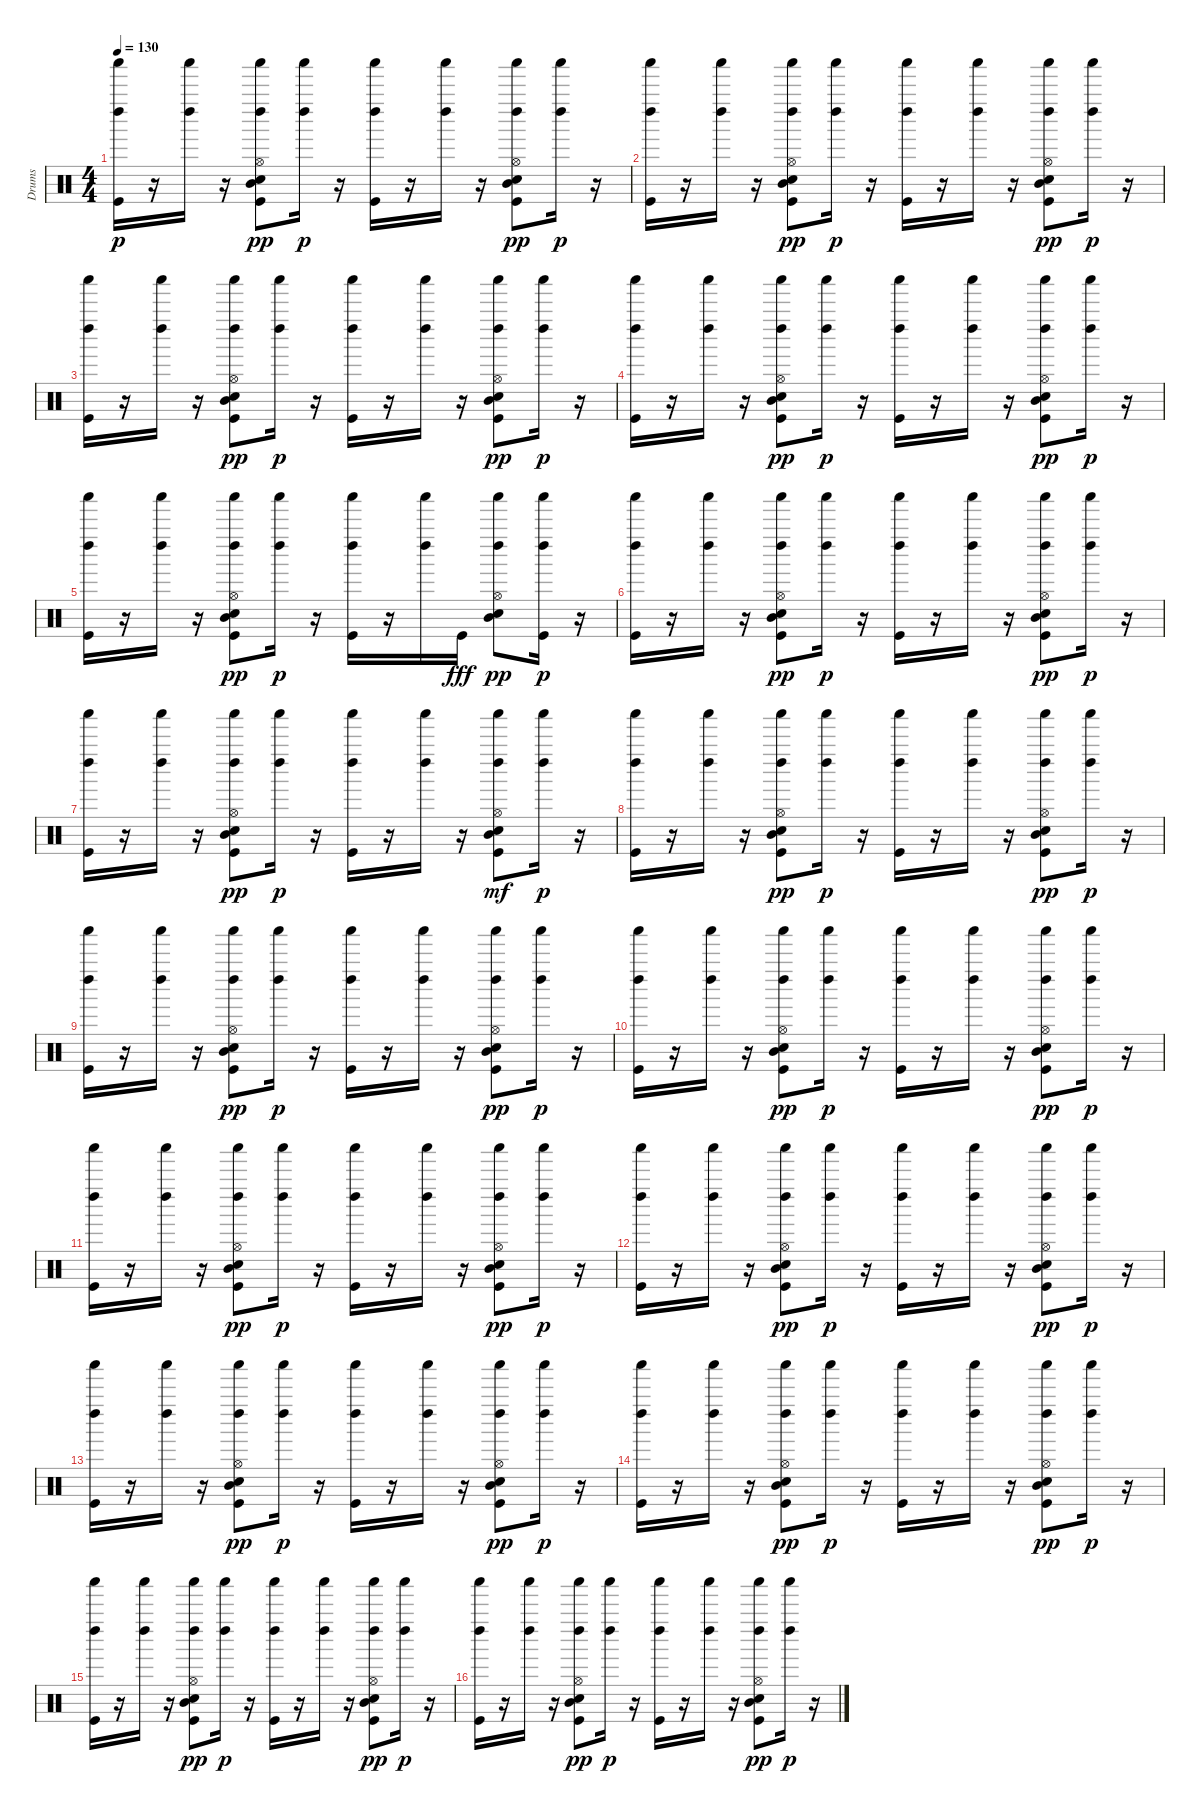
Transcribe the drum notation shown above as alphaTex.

\track ("Drums" "Drums") {instrument percussion}
\staff {score}
\articulation defaults
\ts (4 4)
\tempo 130
\clef neutral
\ks c
("Kick (hit)" "Shaker (hit)" "Left Maraca (hit)").16{dy p} r.16 ("Shaker (hit)" "Left Maraca (hit)").16 r.16 ("Snare (hit) 2" "Kick (hit)" "Shaker (hit)" "Left Maraca (hit)" "Mid Tom (hit)" "Hi-Hat (open)").8{dy pp} ("Shaker (hit)" "Left Maraca (hit)").16{dy p} r.16 ("Kick (hit)" "Shaker (hit)" "Left Maraca (hit)").16 r.16 ("Shaker (hit)" "Left Maraca (hit)").16 r.16 ("Snare (hit) 2" "Kick (hit)" "Shaker (hit)" "Left Maraca (hit)" "Mid Tom (hit)" "Hi-Hat (open)").8{dy pp} ("Shaker (hit)" "Left Maraca (hit)").16{dy p} r.16 |
("Kick (hit)" "Shaker (hit)" "Left Maraca (hit)").16 r.16 ("Shaker (hit)" "Left Maraca (hit)").16 r.16 ("Snare (hit) 2" "Kick (hit)" "Shaker (hit)" "Left Maraca (hit)" "Mid Tom (hit)" "Hi-Hat (open)").8{dy pp} ("Shaker (hit)" "Left Maraca (hit)").16{dy p} r.16 ("Kick (hit)" "Shaker (hit)" "Left Maraca (hit)").16 r.16 ("Shaker (hit)" "Left Maraca (hit)").16 r.16 ("Snare (hit) 2" "Kick (hit)" "Shaker (hit)" "Left Maraca (hit)" "Mid Tom (hit)" "Hi-Hat (open)").8{dy pp} ("Shaker (hit)" "Left Maraca (hit)").16{dy p} r.16 |
("Kick (hit)" "Shaker (hit)" "Left Maraca (hit)").16 r.16 ("Shaker (hit)" "Left Maraca (hit)").16 r.16 ("Snare (hit) 2" "Kick (hit)" "Shaker (hit)" "Left Maraca (hit)" "Mid Tom (hit)" "Hi-Hat (open)").8{dy pp} ("Shaker (hit)" "Left Maraca (hit)").16{dy p} r.16 ("Kick (hit)" "Shaker (hit)" "Left Maraca (hit)").16 r.16 ("Shaker (hit)" "Left Maraca (hit)").16 r.16 ("Snare (hit) 2" "Kick (hit)" "Shaker (hit)" "Left Maraca (hit)" "Mid Tom (hit)" "Hi-Hat (open)").8{dy pp} ("Shaker (hit)" "Left Maraca (hit)").16{dy p} r.16 |
("Kick (hit)" "Shaker (hit)" "Left Maraca (hit)").16 r.16 ("Shaker (hit)" "Left Maraca (hit)").16 r.16 ("Snare (hit) 2" "Kick (hit)" "Shaker (hit)" "Left Maraca (hit)" "Mid Tom (hit)" "Hi-Hat (open)").8{dy pp} ("Shaker (hit)" "Left Maraca (hit)").16{dy p} r.16 ("Kick (hit)" "Shaker (hit)" "Left Maraca (hit)").16 r.16 ("Shaker (hit)" "Left Maraca (hit)").16 r.16 ("Snare (hit) 2" "Kick (hit)" "Shaker (hit)" "Left Maraca (hit)" "Mid Tom (hit)" "Hi-Hat (open)").8{dy pp} ("Shaker (hit)" "Left Maraca (hit)").16{dy p} r.16 |
("Kick (hit)" "Shaker (hit)" "Left Maraca (hit)").16 r.16 ("Shaker (hit)" "Left Maraca (hit)").16 r.16 ("Snare (hit) 2" "Kick (hit)" "Shaker (hit)" "Left Maraca (hit)" "Mid Tom (hit)" "Hi-Hat (open)").8{dy pp} ("Shaker (hit)" "Left Maraca (hit)").16{dy p} r.16 ("Kick (hit)" "Shaker (hit)" "Left Maraca (hit)").16 r.16 ("Shaker (hit)" "Left Maraca (hit)").16 "Kick (hit)".16{dy fff} ("Snare (hit) 2" "Shaker (hit)" "Left Maraca (hit)" "Mid Tom (hit)" "Hi-Hat (open)").8{dy pp} ("Kick (hit)" "Shaker (hit)" "Left Maraca (hit)").16{dy p} r.16 |
("Kick (hit)" "Shaker (hit)" "Left Maraca (hit)").16 r.16 ("Shaker (hit)" "Left Maraca (hit)").16 r.16 ("Snare (hit) 2" "Kick (hit)" "Shaker (hit)" "Left Maraca (hit)" "Mid Tom (hit)" "Hi-Hat (open)").8{dy pp} ("Shaker (hit)" "Left Maraca (hit)").16{dy p} r.16 ("Kick (hit)" "Shaker (hit)" "Left Maraca (hit)").16 r.16 ("Shaker (hit)" "Left Maraca (hit)").16 r.16 ("Snare (hit) 2" "Kick (hit)" "Shaker (hit)" "Left Maraca (hit)" "Mid Tom (hit)" "Hi-Hat (open)").8{dy pp} ("Shaker (hit)" "Left Maraca (hit)").16{dy p} r.16 |
("Kick (hit)" "Shaker (hit)" "Left Maraca (hit)").16 r.16 ("Shaker (hit)" "Left Maraca (hit)").16 r.16 ("Snare (hit) 2" "Kick (hit)" "Shaker (hit)" "Left Maraca (hit)" "Mid Tom (hit)" "Hi-Hat (open)").8{dy pp} ("Shaker (hit)" "Left Maraca (hit)").16{dy p} r.16 ("Kick (hit)" "Shaker (hit)" "Left Maraca (hit)").16 r.16 ("Shaker (hit)" "Left Maraca (hit)").16 r.16 ("Snare (hit) 2" "Kick (hit)" "Shaker (hit)" "Left Maraca (hit)" "Mid Tom (hit)" "Hi-Hat (open)").8{dy mf} ("Shaker (hit)" "Left Maraca (hit)").16{dy p} r.16 |
("Kick (hit)" "Shaker (hit)" "Left Maraca (hit)").16 r.16 ("Shaker (hit)" "Left Maraca (hit)").16 r.16 ("Snare (hit) 2" "Kick (hit)" "Shaker (hit)" "Left Maraca (hit)" "Mid Tom (hit)" "Hi-Hat (open)").8{dy pp} ("Shaker (hit)" "Left Maraca (hit)").16{dy p} r.16 ("Kick (hit)" "Shaker (hit)" "Left Maraca (hit)").16 r.16 ("Shaker (hit)" "Left Maraca (hit)").16 r.16 ("Snare (hit) 2" "Kick (hit)" "Shaker (hit)" "Left Maraca (hit)" "Mid Tom (hit)" "Hi-Hat (open)").8{dy pp} ("Shaker (hit)" "Left Maraca (hit)").16{dy p} r.16 |
("Kick (hit)" "Shaker (hit)" "Left Maraca (hit)").16 r.16 ("Shaker (hit)" "Left Maraca (hit)").16 r.16 ("Snare (hit) 2" "Kick (hit)" "Shaker (hit)" "Left Maraca (hit)" "Mid Tom (hit)" "Hi-Hat (open)").8{dy pp} ("Shaker (hit)" "Left Maraca (hit)").16{dy p} r.16 ("Kick (hit)" "Shaker (hit)" "Left Maraca (hit)").16 r.16 ("Shaker (hit)" "Left Maraca (hit)").16 r.16 ("Snare (hit) 2" "Kick (hit)" "Shaker (hit)" "Left Maraca (hit)" "Mid Tom (hit)" "Hi-Hat (open)").8{dy pp} ("Shaker (hit)" "Left Maraca (hit)").16{dy p} r.16 |
("Kick (hit)" "Shaker (hit)" "Left Maraca (hit)").16 r.16 ("Shaker (hit)" "Left Maraca (hit)").16 r.16 ("Snare (hit) 2" "Kick (hit)" "Shaker (hit)" "Left Maraca (hit)" "Mid Tom (hit)" "Hi-Hat (open)").8{dy pp} ("Shaker (hit)" "Left Maraca (hit)").16{dy p} r.16 ("Kick (hit)" "Shaker (hit)" "Left Maraca (hit)").16 r.16 ("Shaker (hit)" "Left Maraca (hit)").16 r.16 ("Snare (hit) 2" "Kick (hit)" "Shaker (hit)" "Left Maraca (hit)" "Mid Tom (hit)" "Hi-Hat (open)").8{dy pp} ("Shaker (hit)" "Left Maraca (hit)").16{dy p} r.16 |
("Kick (hit)" "Shaker (hit)" "Left Maraca (hit)").16 r.16 ("Shaker (hit)" "Left Maraca (hit)").16 r.16 ("Snare (hit) 2" "Kick (hit)" "Shaker (hit)" "Left Maraca (hit)" "Mid Tom (hit)" "Hi-Hat (open)").8{dy pp} ("Shaker (hit)" "Left Maraca (hit)").16{dy p} r.16 ("Kick (hit)" "Shaker (hit)" "Left Maraca (hit)").16 r.16 ("Shaker (hit)" "Left Maraca (hit)").16 r.16 ("Snare (hit) 2" "Kick (hit)" "Shaker (hit)" "Left Maraca (hit)" "Mid Tom (hit)" "Hi-Hat (open)").8{dy pp} ("Shaker (hit)" "Left Maraca (hit)").16{dy p} r.16 |
("Kick (hit)" "Shaker (hit)" "Left Maraca (hit)").16 r.16 ("Shaker (hit)" "Left Maraca (hit)").16 r.16 ("Snare (hit) 2" "Kick (hit)" "Shaker (hit)" "Left Maraca (hit)" "Mid Tom (hit)" "Hi-Hat (open)").8{dy pp} ("Shaker (hit)" "Left Maraca (hit)").16{dy p} r.16 ("Kick (hit)" "Shaker (hit)" "Left Maraca (hit)").16 r.16 ("Shaker (hit)" "Left Maraca (hit)").16 r.16 ("Snare (hit) 2" "Kick (hit)" "Shaker (hit)" "Left Maraca (hit)" "Mid Tom (hit)" "Hi-Hat (open)").8{dy pp} ("Shaker (hit)" "Left Maraca (hit)").16{dy p} r.16 |
("Kick (hit)" "Shaker (hit)" "Left Maraca (hit)").16 r.16 ("Shaker (hit)" "Left Maraca (hit)").16 r.16 ("Snare (hit) 2" "Kick (hit)" "Shaker (hit)" "Left Maraca (hit)" "Mid Tom (hit)" "Hi-Hat (open)").8{dy pp} ("Shaker (hit)" "Left Maraca (hit)").16{dy p} r.16 ("Kick (hit)" "Shaker (hit)" "Left Maraca (hit)").16 r.16 ("Shaker (hit)" "Left Maraca (hit)").16 r.16 ("Snare (hit) 2" "Kick (hit)" "Shaker (hit)" "Left Maraca (hit)" "Mid Tom (hit)" "Hi-Hat (open)").8{dy pp} ("Shaker (hit)" "Left Maraca (hit)").16{dy p} r.16 |
("Kick (hit)" "Shaker (hit)" "Left Maraca (hit)").16 r.16 ("Shaker (hit)" "Left Maraca (hit)").16 r.16 ("Snare (hit) 2" "Kick (hit)" "Shaker (hit)" "Left Maraca (hit)" "Mid Tom (hit)" "Hi-Hat (open)").8{dy pp} ("Shaker (hit)" "Left Maraca (hit)").16{dy p} r.16 ("Kick (hit)" "Shaker (hit)" "Left Maraca (hit)").16 r.16 ("Shaker (hit)" "Left Maraca (hit)").16 r.16 ("Snare (hit) 2" "Kick (hit)" "Shaker (hit)" "Left Maraca (hit)" "Mid Tom (hit)" "Hi-Hat (open)").8{dy pp} ("Shaker (hit)" "Left Maraca (hit)").16{dy p} r.16 |
("Kick (hit)" "Shaker (hit)" "Left Maraca (hit)").16 r.16 ("Shaker (hit)" "Left Maraca (hit)").16 r.16 ("Snare (hit) 2" "Kick (hit)" "Shaker (hit)" "Left Maraca (hit)" "Mid Tom (hit)" "Hi-Hat (open)").8{dy pp} ("Shaker (hit)" "Left Maraca (hit)").16{dy p} r.16 ("Kick (hit)" "Shaker (hit)" "Left Maraca (hit)").16 r.16 ("Shaker (hit)" "Left Maraca (hit)").16 r.16 ("Snare (hit) 2" "Kick (hit)" "Shaker (hit)" "Left Maraca (hit)" "Mid Tom (hit)" "Hi-Hat (open)").8{dy pp} ("Shaker (hit)" "Left Maraca (hit)").16{dy p} r.16 |
("Kick (hit)" "Shaker (hit)" "Left Maraca (hit)").16 r.16 ("Shaker (hit)" "Left Maraca (hit)").16 r.16 ("Snare (hit) 2" "Kick (hit)" "Shaker (hit)" "Left Maraca (hit)" "Mid Tom (hit)" "Hi-Hat (open)").8{dy pp} ("Shaker (hit)" "Left Maraca (hit)").16{dy p} r.16 ("Kick (hit)" "Shaker (hit)" "Left Maraca (hit)").16 r.16 ("Shaker (hit)" "Left Maraca (hit)").16 r.16 ("Snare (hit) 2" "Kick (hit)" "Shaker (hit)" "Left Maraca (hit)" "Mid Tom (hit)" "Hi-Hat (open)").8{dy pp} ("Shaker (hit)" "Left Maraca (hit)").16{dy p} r.16
